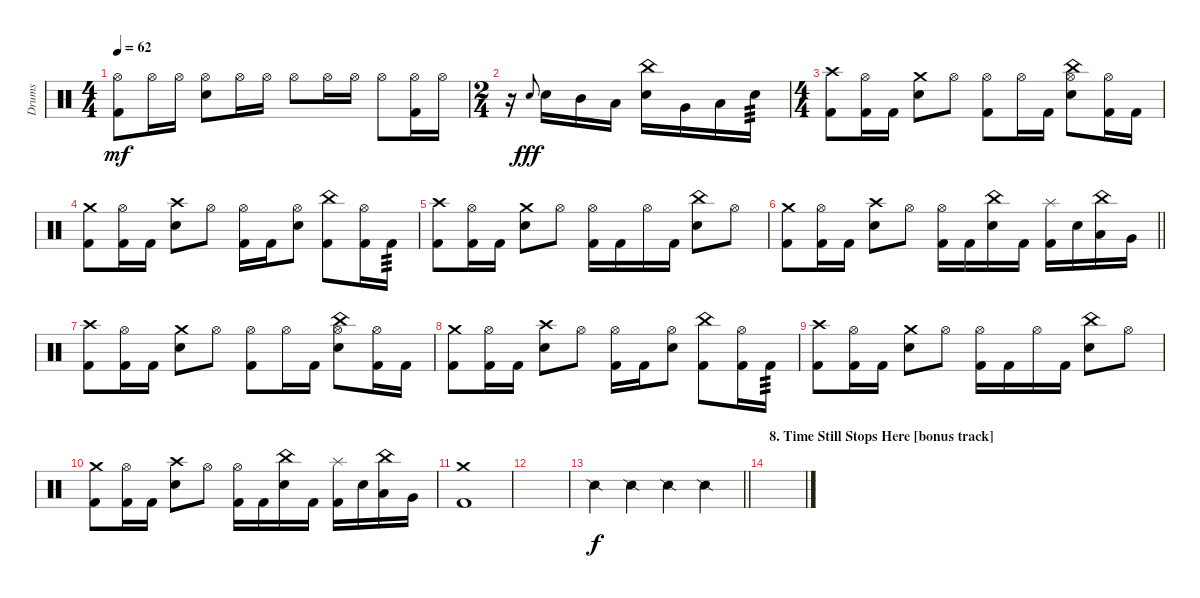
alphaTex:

\track ("Drums" "Drums") {instrument percussion}
\staff {score}
\articulation defaults
\ts (4 4)
\tempo 62
\clef neutral
\ks c
("Kick (hit) 2" "Hi-Hat (open)").8{dy mf} "Hi-Hat (open)".16 "Hi-Hat (open)".16 ("Electric Snare (hit)" "Hi-Hat (open)").8 "Hi-Hat (open)".16 "Hi-Hat (open)".16 "Hi-Hat (open)".8 "Hi-Hat (open)".16 "Hi-Hat (open)".16 "Hi-Hat (open)".8 ("Kick (hit) 2" "Hi-Hat (open)").16 "Hi-Hat (open)".16 |
\ts (2 4)
r.16 "Electric Snare (hit)".8{gr onbeat dy fff} "Electric Snare (hit)".16 "Mid Tom (hit)".16 "Low Tom (hit)".16 ("Electric Snare (hit)" "China (hit)").16 "Very Low Tom (hit)".16 "Low Floor Tom (hit)".16 "Electric Snare (hit)".16{tp 3} |
\ts (4 4)
("Kick (hit) 2" "Crash high (hit)").8 ("Kick (hit) 2" "Hi-Hat (open)").16 "Kick (hit) 2".16 ("Electric Snare (hit)" "Crash medium (hit)").8 "Hi-Hat (open)".8 ("Kick (hit) 2" "Hi-Hat (open)").8 "Hi-Hat (open)".16 "Kick (hit) 2".16 ("Electric Snare (hit)" "Hi-Hat (open)" "China (hit)").8 ("Kick (hit) 2" "Hi-Hat (open)").16 "Kick (hit) 2".16 |
("Kick (hit) 2" "Crash medium (hit)").8 ("Kick (hit) 2" "Hi-Hat (open)").16 "Kick (hit) 2".16 ("Electric Snare (hit)" "Crash high (hit)").8 "Hi-Hat (open)".8 ("Kick (hit) 2" "Hi-Hat (open)").16 "Kick (hit) 2".16 ("Electric Snare (hit)" "Hi-Hat (open)").8 ("Kick (hit) 2" "China (hit)").8 ("Kick (hit) 2" "Hi-Hat (open)").16 "Kick (hit) 2".16{tp 3} |
("Kick (hit) 2" "Crash high (hit)").8 ("Kick (hit) 2" "Hi-Hat (open)").16 "Kick (hit) 2".16 ("Electric Snare (hit)" "Crash medium (hit)").8 "Hi-Hat (open)".8 ("Kick (hit) 2" "Hi-Hat (open)").16 "Kick (hit) 2".16 "Hi-Hat (open)".16 "Kick (hit) 2".16 ("Electric Snare (hit)" "China (hit)").8 "Hi-Hat (open)".8 |
\barLineRight lightlight
("Kick (hit) 2" "Crash medium (hit)").8 ("Kick (hit) 2" "Hi-Hat (open)").16 "Kick (hit) 2".16 ("Electric Snare (hit)" "Crash high (hit)").8 "Hi-Hat (open)".8 ("Kick (hit) 2" "Hi-Hat (open)").16 "Kick (hit) 2".16 ("Electric Snare (hit)" "China (hit)").16 "Kick (hit) 2".16 ("Kick (hit) 2" "Splash (hit)").16 "Electric Snare (hit)".16 ("Low Tom (hit)" "China (hit)").16 "Very Low Tom (hit)".16 |
("Kick (hit) 2" "Crash high (hit)").8 ("Kick (hit) 2" "Hi-Hat (open)").16 "Kick (hit) 2".16 ("Electric Snare (hit)" "Crash medium (hit)").8 "Hi-Hat (open)".8 ("Kick (hit) 2" "Hi-Hat (open)").8 "Hi-Hat (open)".16 "Kick (hit) 2".16 ("Electric Snare (hit)" "Hi-Hat (open)" "China (hit)").8 ("Kick (hit) 2" "Hi-Hat (open)").16 "Kick (hit) 2".16 |
("Kick (hit) 2" "Crash medium (hit)").8 ("Kick (hit) 2" "Hi-Hat (open)").16 "Kick (hit) 2".16 ("Electric Snare (hit)" "Crash high (hit)").8 "Hi-Hat (open)".8 ("Kick (hit) 2" "Hi-Hat (open)").16 "Kick (hit) 2".16 ("Electric Snare (hit)" "Hi-Hat (open)").8 ("Kick (hit) 2" "China (hit)").8 ("Kick (hit) 2" "Hi-Hat (open)").16 "Kick (hit) 2".16{tp 3} |
("Kick (hit) 2" "Crash high (hit)").8 ("Kick (hit) 2" "Hi-Hat (open)").16 "Kick (hit) 2".16 ("Electric Snare (hit)" "Crash medium (hit)").8 "Hi-Hat (open)".8 ("Kick (hit) 2" "Hi-Hat (open)").16 "Kick (hit) 2".16 "Hi-Hat (open)".16 "Kick (hit) 2".16 ("Electric Snare (hit)" "China (hit)").8 "Hi-Hat (open)".8 |
("Kick (hit) 2" "Crash medium (hit)").8 ("Kick (hit) 2" "Hi-Hat (open)").16 "Kick (hit) 2".16 ("Electric Snare (hit)" "Crash high (hit)").8 "Hi-Hat (open)".8 ("Kick (hit) 2" "Hi-Hat (open)").16 "Kick (hit) 2".16 ("Electric Snare (hit)" "China (hit)").16 "Kick (hit) 2".16 ("Kick (hit) 2" "Splash (hit)").16 "Electric Snare (hit)".16 ("Low Tom (hit)" "China (hit)").16 "Very Low Tom (hit)".16 |
("Kick (hit) 2" "Crash medium (hit)").1 |
|
\barLineRight lightlight "Snare (side stick) 2".4{dy f} "Snare (side stick) 2".4 "Snare (side stick) 2".4 "Snare (side stick) 2".4
|
\section ("" "8. Time Still Stops Here [bonus track]")
